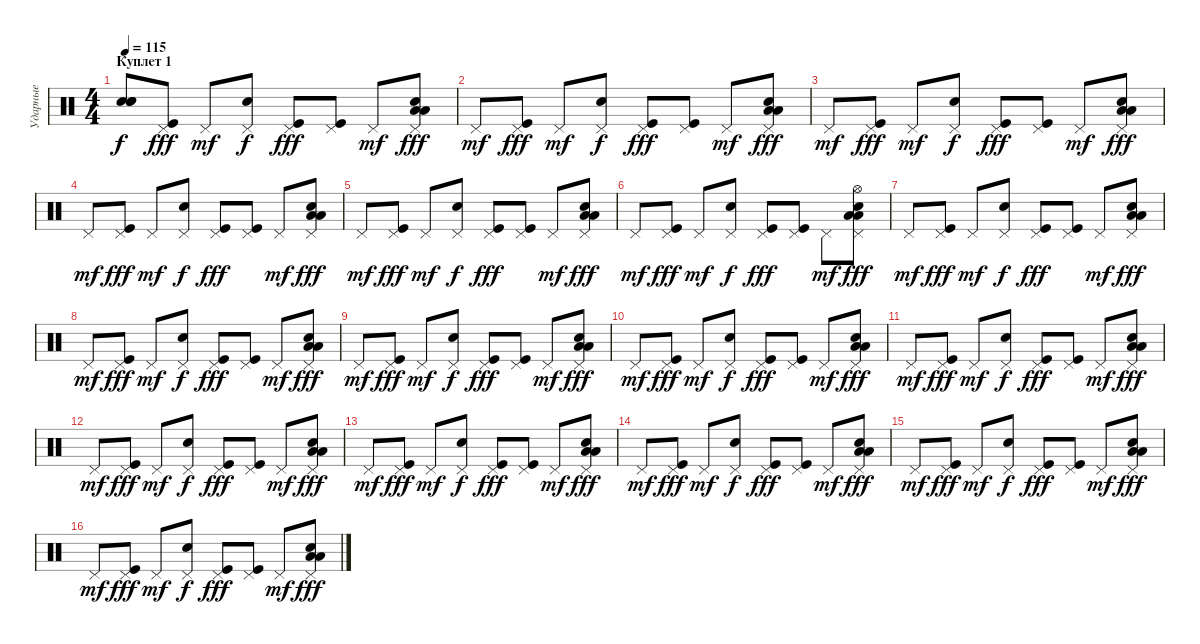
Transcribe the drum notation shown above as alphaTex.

\track ("Ударные" "Ударные") {instrument percussion}
\staff {score}
\articulation defaults
\ts (4 4)
\section ("" "Куплет 1")
\tempo 115
\clef neutral
\ks c
("Snare (hit)"{t} "Snare (hit)"{t} "Snare (hit)"{t}).8{dy f} ("Pedal Hi-Hat (hit)" "Kick (hit)").8{dy fff} "Pedal Hi-Hat (hit)".8{dy mf} ("Pedal Hi-Hat (hit)" "Electric Snare (hit)").8{dy f} ("Pedal Hi-Hat (hit)" "Kick (hit)").8{dy fff} ("Pedal Hi-Hat (hit)" "Kick (hit)").8 "Pedal Hi-Hat (hit)".8{dy mf} ("Pedal Hi-Hat (hit)" "Low Tom (hit)" "Low Tom (hit)" "Electric Snare (hit)").8{dy fff} |
"Pedal Hi-Hat (hit)".8{dy mf} ("Pedal Hi-Hat (hit)" "Kick (hit)").8{dy fff} "Pedal Hi-Hat (hit)".8{dy mf} ("Pedal Hi-Hat (hit)" "Electric Snare (hit)").8{dy f} ("Pedal Hi-Hat (hit)" "Kick (hit)").8{dy fff} ("Pedal Hi-Hat (hit)" "Kick (hit)").8 "Pedal Hi-Hat (hit)".8{dy mf} ("Pedal Hi-Hat (hit)" "Low Tom (hit)" "Low Tom (hit)" "Electric Snare (hit)").8{dy fff} |
"Pedal Hi-Hat (hit)".8{dy mf} ("Pedal Hi-Hat (hit)" "Kick (hit)").8{dy fff} "Pedal Hi-Hat (hit)".8{dy mf} ("Pedal Hi-Hat (hit)" "Electric Snare (hit)").8{dy f} ("Pedal Hi-Hat (hit)" "Kick (hit)").8{dy fff} ("Pedal Hi-Hat (hit)" "Kick (hit)").8 "Pedal Hi-Hat (hit)".8{dy mf} ("Pedal Hi-Hat (hit)" "Low Tom (hit)" "Low Tom (hit)" "Electric Snare (hit)").8{dy fff} |
"Pedal Hi-Hat (hit)".8{dy mf} ("Pedal Hi-Hat (hit)" "Kick (hit)").8{dy fff} "Pedal Hi-Hat (hit)".8{dy mf} ("Pedal Hi-Hat (hit)" "Electric Snare (hit)").8{dy f} ("Pedal Hi-Hat (hit)" "Kick (hit)").8{dy fff} ("Pedal Hi-Hat (hit)" "Kick (hit)").8 "Pedal Hi-Hat (hit)".8{dy mf} ("Pedal Hi-Hat (hit)" "Low Tom (hit)" "Low Tom (hit)" "Electric Snare (hit)").8{dy fff} |
"Pedal Hi-Hat (hit)".8{dy mf} ("Pedal Hi-Hat (hit)" "Kick (hit)").8{dy fff} "Pedal Hi-Hat (hit)".8{dy mf} ("Pedal Hi-Hat (hit)" "Electric Snare (hit)").8{dy f} ("Pedal Hi-Hat (hit)" "Kick (hit)").8{dy fff} ("Pedal Hi-Hat (hit)" "Kick (hit)").8 "Pedal Hi-Hat (hit)".8{dy mf} ("Pedal Hi-Hat (hit)" "Low Tom (hit)" "Low Tom (hit)" "Electric Snare (hit)").8{dy fff} |
"Pedal Hi-Hat (hit)".8{dy mf} ("Pedal Hi-Hat (hit)" "Kick (hit)").8{dy fff} "Pedal Hi-Hat (hit)".8{dy mf} ("Pedal Hi-Hat (hit)" "Electric Snare (hit)").8{dy f} ("Pedal Hi-Hat (hit)" "Kick (hit)").8{dy fff} ("Pedal Hi-Hat (hit)" "Kick (hit)").8 "Pedal Hi-Hat (hit)".8{dy mf} ("Pedal Hi-Hat (hit)" "Hi-Hat (open)" "Low Tom (hit)" "Low Tom (hit)" "Electric Snare (hit)").8{dy fff} |
"Pedal Hi-Hat (hit)".8{dy mf} ("Pedal Hi-Hat (hit)" "Kick (hit)").8{dy fff} "Pedal Hi-Hat (hit)".8{dy mf} ("Pedal Hi-Hat (hit)" "Electric Snare (hit)").8{dy f} ("Pedal Hi-Hat (hit)" "Kick (hit)").8{dy fff} ("Pedal Hi-Hat (hit)" "Kick (hit)").8 "Pedal Hi-Hat (hit)".8{dy mf} ("Pedal Hi-Hat (hit)" "Low Tom (hit)" "Low Tom (hit)" "Electric Snare (hit)").8{dy fff} |
"Pedal Hi-Hat (hit)".8{dy mf} ("Pedal Hi-Hat (hit)" "Kick (hit)").8{dy fff} "Pedal Hi-Hat (hit)".8{dy mf} ("Pedal Hi-Hat (hit)" "Electric Snare (hit)").8{dy f} ("Pedal Hi-Hat (hit)" "Kick (hit)").8{dy fff} ("Pedal Hi-Hat (hit)" "Kick (hit)").8 "Pedal Hi-Hat (hit)".8{dy mf} ("Pedal Hi-Hat (hit)" "Low Tom (hit)" "Low Tom (hit)" "Electric Snare (hit)").8{dy fff} |
"Pedal Hi-Hat (hit)".8{dy mf} ("Pedal Hi-Hat (hit)" "Kick (hit)").8{dy fff} "Pedal Hi-Hat (hit)".8{dy mf} ("Pedal Hi-Hat (hit)" "Electric Snare (hit)").8{dy f} ("Pedal Hi-Hat (hit)" "Kick (hit)").8{dy fff} ("Pedal Hi-Hat (hit)" "Kick (hit)").8 "Pedal Hi-Hat (hit)".8{dy mf} ("Pedal Hi-Hat (hit)" "Low Tom (hit)" "Low Tom (hit)" "Electric Snare (hit)").8{dy fff} |
"Pedal Hi-Hat (hit)".8{dy mf} ("Pedal Hi-Hat (hit)" "Kick (hit)").8{dy fff} "Pedal Hi-Hat (hit)".8{dy mf} ("Pedal Hi-Hat (hit)" "Electric Snare (hit)").8{dy f} ("Pedal Hi-Hat (hit)" "Kick (hit)").8{dy fff} ("Pedal Hi-Hat (hit)" "Kick (hit)").8 "Pedal Hi-Hat (hit)".8{dy mf} ("Pedal Hi-Hat (hit)" "Low Tom (hit)" "Low Tom (hit)" "Electric Snare (hit)").8{dy fff} |
"Pedal Hi-Hat (hit)".8{dy mf} ("Pedal Hi-Hat (hit)" "Kick (hit)").8{dy fff} "Pedal Hi-Hat (hit)".8{dy mf} ("Pedal Hi-Hat (hit)" "Electric Snare (hit)").8{dy f} ("Pedal Hi-Hat (hit)" "Kick (hit)").8{dy fff} ("Pedal Hi-Hat (hit)" "Kick (hit)").8 "Pedal Hi-Hat (hit)".8{dy mf} ("Pedal Hi-Hat (hit)" "Low Tom (hit)" "Low Tom (hit)" "Electric Snare (hit)").8{dy fff} |
"Pedal Hi-Hat (hit)".8{dy mf} ("Pedal Hi-Hat (hit)" "Kick (hit)").8{dy fff} "Pedal Hi-Hat (hit)".8{dy mf} ("Pedal Hi-Hat (hit)" "Electric Snare (hit)").8{dy f} ("Pedal Hi-Hat (hit)" "Kick (hit)").8{dy fff} ("Pedal Hi-Hat (hit)" "Kick (hit)").8 "Pedal Hi-Hat (hit)".8{dy mf} ("Pedal Hi-Hat (hit)" "Low Tom (hit)" "Low Tom (hit)" "Electric Snare (hit)").8{dy fff} |
"Pedal Hi-Hat (hit)".8{dy mf} ("Pedal Hi-Hat (hit)" "Kick (hit)").8{dy fff} "Pedal Hi-Hat (hit)".8{dy mf} ("Pedal Hi-Hat (hit)" "Electric Snare (hit)").8{dy f} ("Pedal Hi-Hat (hit)" "Kick (hit)").8{dy fff} ("Pedal Hi-Hat (hit)" "Kick (hit)").8 "Pedal Hi-Hat (hit)".8{dy mf} ("Pedal Hi-Hat (hit)" "Low Tom (hit)" "Low Tom (hit)" "Electric Snare (hit)").8{dy fff} |
"Pedal Hi-Hat (hit)".8{dy mf} ("Pedal Hi-Hat (hit)" "Kick (hit)").8{dy fff} "Pedal Hi-Hat (hit)".8{dy mf} ("Pedal Hi-Hat (hit)" "Electric Snare (hit)").8{dy f} ("Pedal Hi-Hat (hit)" "Kick (hit)").8{dy fff} ("Pedal Hi-Hat (hit)" "Kick (hit)").8 "Pedal Hi-Hat (hit)".8{dy mf} ("Pedal Hi-Hat (hit)" "Low Tom (hit)" "Low Tom (hit)" "Electric Snare (hit)").8{dy fff} |
"Pedal Hi-Hat (hit)".8{dy mf} ("Pedal Hi-Hat (hit)" "Kick (hit)").8{dy fff} "Pedal Hi-Hat (hit)".8{dy mf} ("Pedal Hi-Hat (hit)" "Electric Snare (hit)").8{dy f} ("Pedal Hi-Hat (hit)" "Kick (hit)").8{dy fff} ("Pedal Hi-Hat (hit)" "Kick (hit)").8 "Pedal Hi-Hat (hit)".8{dy mf} ("Pedal Hi-Hat (hit)" "Low Tom (hit)" "Low Tom (hit)" "Electric Snare (hit)").8{dy fff} |
"Pedal Hi-Hat (hit)".8{dy mf} ("Pedal Hi-Hat (hit)" "Kick (hit)").8{dy fff} "Pedal Hi-Hat (hit)".8{dy mf} ("Pedal Hi-Hat (hit)" "Electric Snare (hit)").8{dy f} ("Pedal Hi-Hat (hit)" "Kick (hit)").8{dy fff} ("Pedal Hi-Hat (hit)" "Kick (hit)").8 "Pedal Hi-Hat (hit)".8{dy mf} ("Pedal Hi-Hat (hit)" "Low Tom (hit)" "Low Tom (hit)" "Electric Snare (hit)").8{dy fff}
